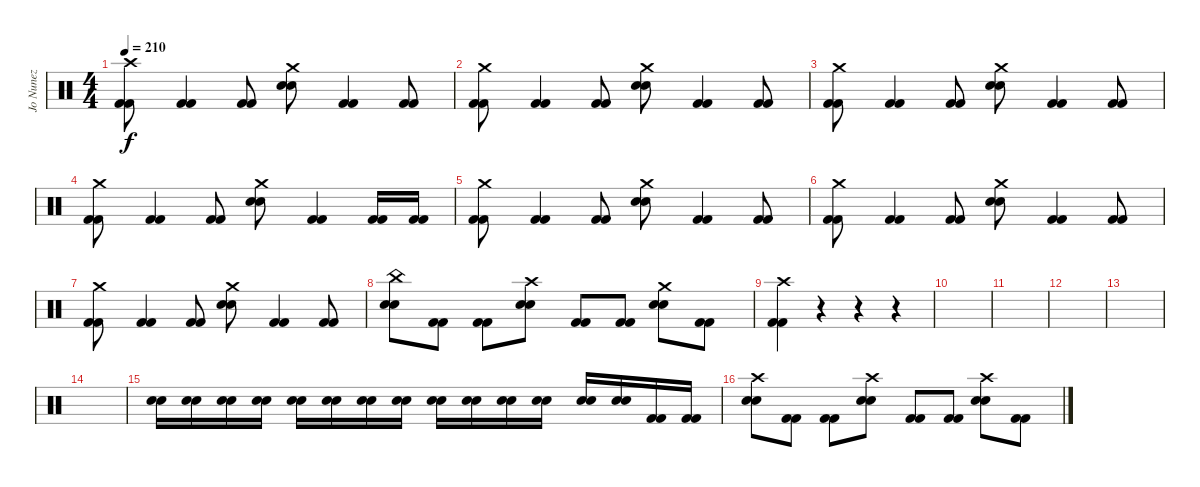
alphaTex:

\track ("Jo Nunez" "Jo Nunez") {instrument percussion}
\staff {score}
\articulation defaults
\ts (4 4)
\tempo 210
\clef neutral
\ks c
("Kick (hit) 2" "Kick (hit) 2" "Crash high (hit)").8{dy f} ("Kick (hit) 2" "Kick (hit) 2").4 ("Kick (hit) 2" "Kick (hit) 2").8 ("Electric Snare (hit)" "Electric Snare (hit)" "Crash medium (hit)").8 ("Kick (hit) 2" "Kick (hit) 2").4 ("Kick (hit) 2" "Kick (hit) 2").8 |
("Kick (hit) 2" "Kick (hit) 2" "Crash medium (hit)").8 ("Kick (hit) 2" "Kick (hit) 2").4 ("Kick (hit) 2" "Kick (hit) 2").8 ("Electric Snare (hit)" "Electric Snare (hit)" "Crash medium (hit)").8 ("Kick (hit) 2" "Kick (hit) 2").4 ("Kick (hit) 2" "Kick (hit) 2").8 |
("Kick (hit) 2" "Kick (hit) 2" "Crash medium (hit)").8 ("Kick (hit) 2" "Kick (hit) 2").4 ("Kick (hit) 2" "Kick (hit) 2").8 ("Electric Snare (hit)" "Electric Snare (hit)" "Crash medium (hit)").8 ("Kick (hit) 2" "Kick (hit) 2").4 ("Kick (hit) 2" "Kick (hit) 2").8 |
("Kick (hit) 2" "Kick (hit) 2" "Crash medium (hit)").8 ("Kick (hit) 2" "Kick (hit) 2").4 ("Kick (hit) 2" "Kick (hit) 2").8 ("Electric Snare (hit)" "Electric Snare (hit)" "Crash medium (hit)").8 ("Kick (hit) 2" "Kick (hit) 2").4 ("Kick (hit) 2" "Kick (hit) 2").16 ("Kick (hit) 2" "Kick (hit) 2").16 |
("Kick (hit) 2" "Kick (hit) 2" "Crash medium (hit)").8 ("Kick (hit) 2" "Kick (hit) 2").4 ("Kick (hit) 2" "Kick (hit) 2").8 ("Electric Snare (hit)" "Electric Snare (hit)" "Crash medium (hit)").8 ("Kick (hit) 2" "Kick (hit) 2").4 ("Kick (hit) 2" "Kick (hit) 2").8 |
("Kick (hit) 2" "Kick (hit) 2" "Crash medium (hit)").8 ("Kick (hit) 2" "Kick (hit) 2").4 ("Kick (hit) 2" "Kick (hit) 2").8 ("Electric Snare (hit)" "Electric Snare (hit)" "Crash medium (hit)").8 ("Kick (hit) 2" "Kick (hit) 2").4 ("Kick (hit) 2" "Kick (hit) 2").8 |
("Kick (hit) 2" "Kick (hit) 2" "Crash medium (hit)").8 ("Kick (hit) 2" "Kick (hit) 2").4 ("Kick (hit) 2" "Kick (hit) 2").8 ("Electric Snare (hit)" "Electric Snare (hit)" "Crash medium (hit)").8 ("Kick (hit) 2" "Kick (hit) 2").4 ("Kick (hit) 2" "Kick (hit) 2").8 |
("Electric Snare (hit)" "Electric Snare (hit)" "China (hit)").8 ("Kick (hit) 2" "Kick (hit) 2").8 ("Kick (hit) 2" "Kick (hit) 2").8 ("Electric Snare (hit)" "Electric Snare (hit)" "Crash high (hit)").8 ("Kick (hit) 2" "Kick (hit) 2").8 ("Kick (hit) 2" "Kick (hit) 2").8 ("Electric Snare (hit)" "Electric Snare (hit)" "Crash medium (hit)").8 ("Kick (hit) 2" "Kick (hit) 2").8 |
("Kick (hit) 2" "Kick (hit) 2" "Crash high (hit)").4 r.4 r.4 r.4 |
|
|
|
|
|
("Electric Snare (hit)" "Electric Snare (hit)").16 ("Electric Snare (hit)" "Electric Snare (hit)").16 ("Electric Snare (hit)" "Electric Snare (hit)").16 ("Electric Snare (hit)" "Electric Snare (hit)").16 ("Electric Snare (hit)" "Electric Snare (hit)").16 ("Electric Snare (hit)" "Electric Snare (hit)").16 ("Electric Snare (hit)" "Electric Snare (hit)").16 ("Electric Snare (hit)" "Electric Snare (hit)").16 ("Electric Snare (hit)" "Electric Snare (hit)").16 ("Electric Snare (hit)" "Electric Snare (hit)").16 ("Electric Snare (hit)" "Electric Snare (hit)").16 ("Electric Snare (hit)" "Electric Snare (hit)").16 ("Electric Snare (hit)" "Electric Snare (hit)").16 ("Electric Snare (hit)" "Electric Snare (hit)").16 ("Kick (hit) 2" "Kick (hit) 2").16 ("Kick (hit) 2" "Kick (hit) 2").16 |
("Electric Snare (hit)" "Electric Snare (hit)" "Crash high (hit)").8 ("Kick (hit) 2" "Kick (hit) 2").8 ("Kick (hit) 2" "Kick (hit) 2").8 ("Electric Snare (hit)" "Electric Snare (hit)" "Crash high (hit)").8 ("Kick (hit) 2" "Kick (hit) 2").8 ("Kick (hit) 2" "Kick (hit) 2").8 ("Electric Snare (hit)" "Electric Snare (hit)" "Crash high (hit)").8 ("Kick (hit) 2" "Kick (hit) 2").8
